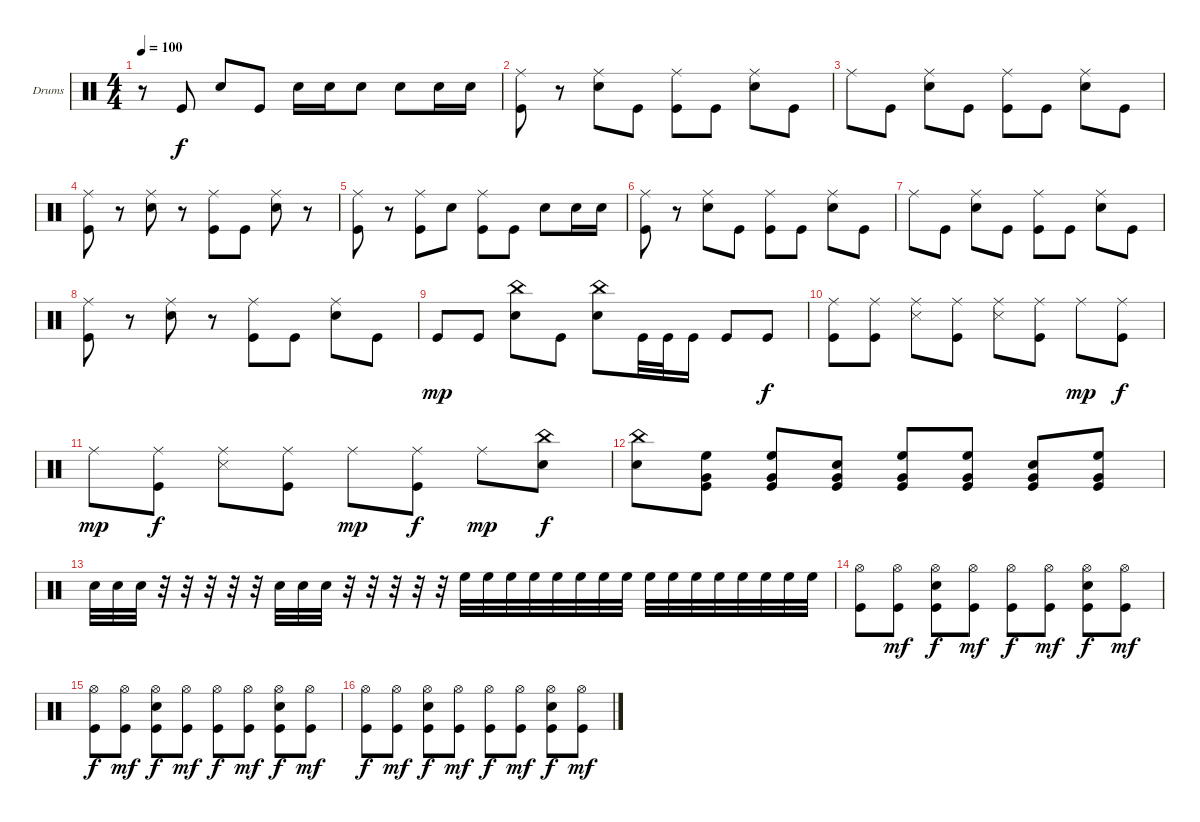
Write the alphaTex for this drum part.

\bracketExtendMode groupsimilarinstruments
\firstSystemTrackNameOrientation horizontal
\otherSystemsTrackNameOrientation horizontal
\track ("Drumkit" "Drums") {instrument percussion}
\staff {score}
\articulation defaults
\ts (4 4)
\tempo 100
\clef neutral
\ks c
r.8{dy f} "Kick (hit)".8 "Snare (hit) 2".8 "Kick (hit)".8 "Snare (hit) 2".16 "Snare (hit) 2".16 "Snare (hit) 2".8 "Snare (hit) 2".8 "Snare (hit) 2".16 "Snare (hit) 2".16 |
("Kick (hit)" "Ride (middle)").8 r.8 ("Snare (hit) 2" "Ride (middle)").8 "Kick (hit)".8 ("Kick (hit)" "Ride (middle)").8 "Kick (hit)".8 ("Snare (hit) 2" "Ride (middle)").8 "Kick (hit)".8 |
"Ride (middle)".8 "Kick (hit)".8 ("Snare (hit) 2" "Ride (middle)").8 "Kick (hit)".8 ("Kick (hit)" "Ride (middle)").8 "Kick (hit)".8 ("Snare (hit) 2" "Ride (middle)").8 "Kick (hit)".8 |
("Kick (hit)" "Ride (middle)").8 r.8 ("Snare (hit) 2" "Ride (middle)").8 r.8 ("Kick (hit)" "Ride (middle)").8 "Kick (hit)".8 ("Snare (hit) 2" "Ride (middle)").8 r.8 |
("Kick (hit)" "Ride (middle)").8 r.8 ("Kick (hit)" "Ride (middle)").8 "Snare (hit) 2".8 ("Kick (hit)" "Ride (middle)").8 "Kick (hit)".8 "Snare (hit) 2".8 "Snare (hit) 2".16 "Snare (hit) 2".16 |
("Kick (hit)" "Ride (middle)").8 r.8 ("Snare (hit) 2" "Ride (middle)").8 "Kick (hit)".8 ("Kick (hit)" "Ride (middle)").8 "Kick (hit)".8 ("Snare (hit) 2" "Ride (middle)").8 "Kick (hit)".8 |
"Ride (middle)".8 "Kick (hit)".8 ("Snare (hit) 2" "Ride (middle)").8 "Kick (hit)".8 ("Kick (hit)" "Ride (middle)").8 "Kick (hit)".8 ("Snare (hit) 2" "Ride (middle)").8 "Kick (hit)".8 |
("Kick (hit)" "Ride (middle)").8 r.8 ("Snare (hit) 2" "Ride (middle)").8 r.8 ("Kick (hit)" "Ride (middle)").8 "Kick (hit)".8 ("Snare (hit) 2" "Ride (middle)").8 "Kick (hit)".8 |
"Kick (hit)".8{dy mp} "Kick (hit)".8 ("Snare (hit) 2" "China (hit)").8 "Kick (hit)".8 ("Snare (hit) 2" "China (hit)").8 "Kick (hit)".32 "Kick (hit)".32 "Kick (hit)".16 "Kick (hit)".8 "Kick (hit)".8{dy f} |
("Kick (hit)" "Ride (middle)").8 ("Kick (hit)" "Ride (middle)").8 ("Snare (side stick) 3" "Ride (middle)").8 ("Kick (hit)" "Ride (middle)").8 ("Snare (side stick) 3" "Ride (middle)").8 ("Kick (hit)" "Ride (middle)").8 "Ride (middle)".8{dy mp} ("Kick (hit)" "Ride (middle)").8{dy f} |
"Ride (middle)".8{dy mp} ("Kick (hit)" "Ride (middle)").8{dy f} ("Snare (side stick) 3" "Ride (middle)").8 ("Kick (hit)" "Ride (middle)").8 "Ride (middle)".8{dy mp} ("Kick (hit)" "Ride (middle)").8{dy f} "Ride (middle)".8{dy mp} ("Snare (hit) 2" "China (hit)").8{dy f} |
("Snare (hit) 2" "China (hit)").8 ("High Floor Tom (hit)" "Very Low Tom (hit)" "Kick (hit)").8 ("High Floor Tom (hit)" "Very Low Tom (hit)" "Kick (hit)").8 ("Snare (hit) 2" "Very Low Tom (hit)" "Kick (hit)").8 ("High Floor Tom (hit)" "Very Low Tom (hit)" "Kick (hit)").8 ("High Floor Tom (hit)" "Very Low Tom (hit)" "Kick (hit)").8 ("Snare (hit) 2" "Very Low Tom (hit)" "Kick (hit)").8 ("High Floor Tom (hit)" "Very Low Tom (hit)" "Kick (hit)").8 |
"Snare (hit) 2".32 "Snare (hit) 2".32 "Snare (hit) 2".32 r.32 r.32 r.32 r.32 r.32 "Snare (hit) 2".32 "Snare (hit) 2".32 "Snare (hit) 2".32 r.32 r.32 r.32 r.32 r.32 "High Floor Tom (hit)".32 "High Floor Tom (hit)".32 "High Floor Tom (hit)".32 "High Floor Tom (hit)".32 "High Floor Tom (hit)".32 "High Floor Tom (hit)".32 "High Floor Tom (hit)".32 "High Floor Tom (hit)".32 "High Floor Tom (hit)".32 "High Floor Tom (hit)".32 "High Floor Tom (hit)".32 "High Floor Tom (hit)".32 "High Floor Tom (hit)".32 "High Floor Tom (hit)".32 "High Floor Tom (hit)".32 "High Floor Tom (hit)".32 |
("Hi-Hat (open)" "Kick (hit)").8 ("Hi-Hat (open)" "Kick (hit)").8{dy mf} ("Hi-Hat (open)" "Kick (hit)" "Snare (hit) 2").8{dy f} ("Hi-Hat (open)" "Kick (hit)").8{dy mf} ("Hi-Hat (open)" "Kick (hit)").8{dy f} ("Hi-Hat (open)" "Kick (hit)").8{dy mf} ("Hi-Hat (open)" "Kick (hit)" "Snare (hit) 2").8{dy f} ("Hi-Hat (open)" "Kick (hit)").8{dy mf} |
("Hi-Hat (open)" "Kick (hit)").8{dy f} ("Hi-Hat (open)" "Kick (hit)").8{dy mf} ("Hi-Hat (open)" "Kick (hit)" "Snare (hit) 2").8{dy f} ("Hi-Hat (open)" "Kick (hit)").8{dy mf} ("Hi-Hat (open)" "Kick (hit)").8{dy f} ("Hi-Hat (open)" "Kick (hit)").8{dy mf} ("Hi-Hat (open)" "Kick (hit)" "Snare (hit) 2").8{dy f} ("Hi-Hat (open)" "Kick (hit)").8{dy mf} |
("Hi-Hat (open)" "Kick (hit)").8{dy f} ("Hi-Hat (open)" "Kick (hit)").8{dy mf} ("Hi-Hat (open)" "Kick (hit)" "Snare (hit) 2").8{dy f} ("Hi-Hat (open)" "Kick (hit)").8{dy mf} ("Hi-Hat (open)" "Kick (hit)").8{dy f} ("Hi-Hat (open)" "Kick (hit)").8{dy mf} ("Hi-Hat (open)" "Kick (hit)" "Snare (hit) 2").8{dy f} ("Hi-Hat (open)" "Kick (hit)").8{dy mf}
